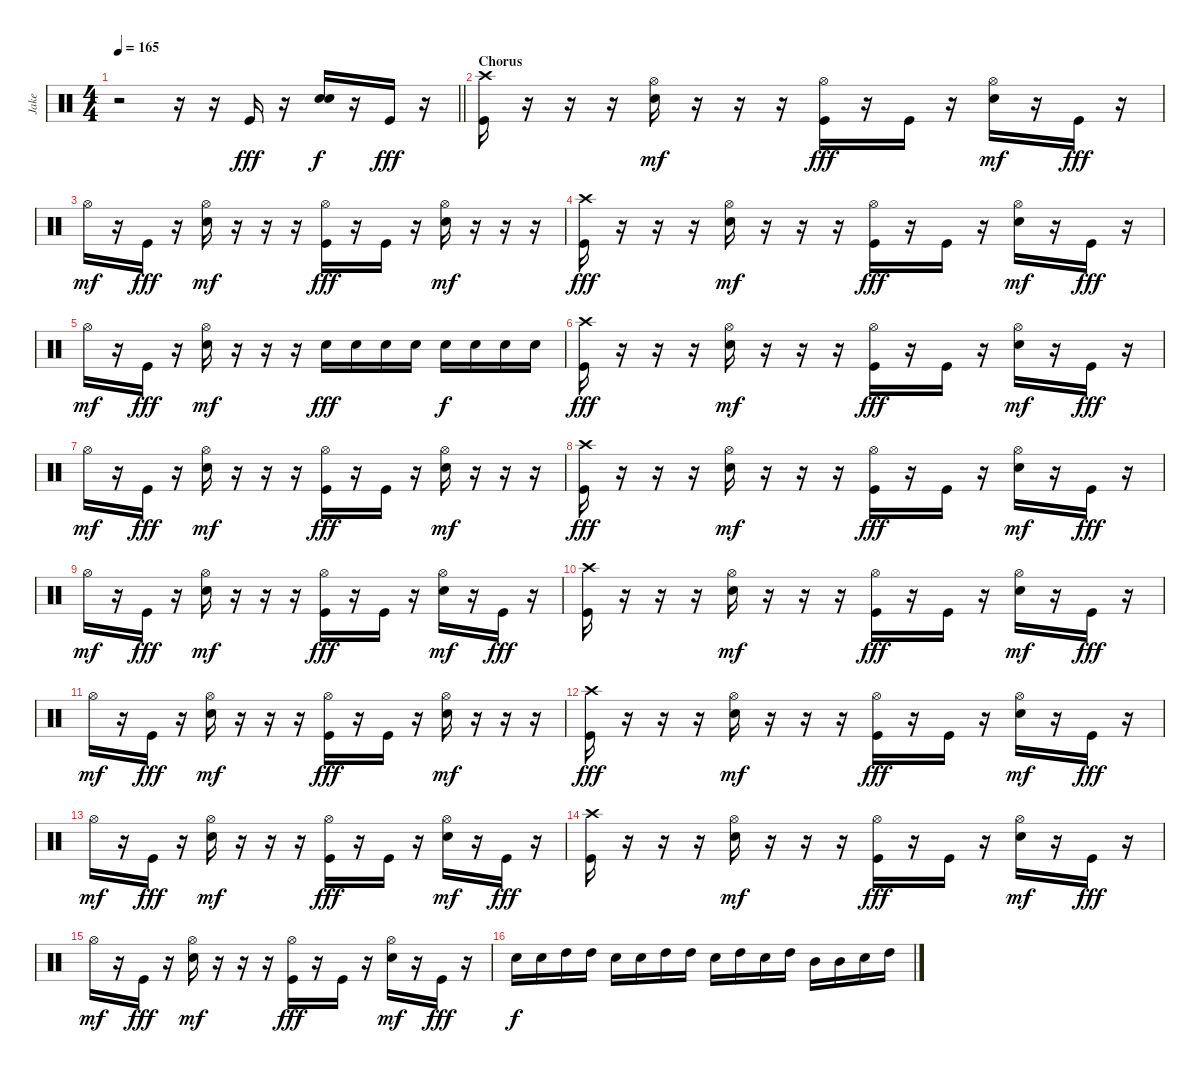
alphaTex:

\track ("Jake" "Jake") {instrument percussion}
\staff {score}
\articulation defaults
\ts (4 4)
\tempo 165
\clef neutral
\barLineRight lightlight
\ks c
r.2{dy mp} r.16 r.16 "Kick (hit)".16{dy fff} r.16 ("Electric Snare (hit)" "Electric Snare (hit)").16{dy f} r.16 "Kick (hit)".16{dy fff} r.16 |
\section ("" "Chorus")
("Crash high (hit)" "Kick (hit)").16 r.16 r.16 r.16 ("Hi-Hat (open)" "Electric Snare (hit)").16{dy mf} r.16 r.16 r.16 ("Hi-Hat (open)" "Kick (hit)").16{dy fff} r.16 "Kick (hit)".16 r.16 ("Hi-Hat (open)" "Electric Snare (hit)").16{dy mf} r.16 "Kick (hit)".16{dy fff} r.16 |
"Hi-Hat (open)".16{dy mf} r.16 "Kick (hit)".16{dy fff} r.16 ("Hi-Hat (open)" "Electric Snare (hit)").16{dy mf} r.16 r.16 r.16 ("Hi-Hat (open)" "Kick (hit)").16{dy fff} r.16 "Kick (hit)".16 r.16 ("Hi-Hat (open)" "Electric Snare (hit)").16{dy mf} r.16 r.16 r.16 |
("Crash high (hit)" "Kick (hit)").16{dy fff} r.16 r.16 r.16 ("Hi-Hat (open)" "Electric Snare (hit)").16{dy mf} r.16 r.16 r.16 ("Hi-Hat (open)" "Kick (hit)").16{dy fff} r.16 "Kick (hit)".16 r.16 ("Hi-Hat (open)" "Electric Snare (hit)").16{dy mf} r.16 "Kick (hit)".16{dy fff} r.16 |
"Hi-Hat (open)".16{dy mf} r.16 "Kick (hit)".16{dy fff} r.16 ("Hi-Hat (open)" "Electric Snare (hit)").16{dy mf} r.16 r.16 r.16 "Electric Snare (hit)".16{dy fff} "Electric Snare (hit)".16 "Electric Snare (hit)".16 "Electric Snare (hit)".16 "Electric Snare (hit)".16{dy f} "Electric Snare (hit)".16 "Electric Snare (hit)".16 "Electric Snare (hit)".16 |
("Crash high (hit)" "Kick (hit)").16{dy fff} r.16 r.16 r.16 ("Hi-Hat (open)" "Electric Snare (hit)").16{dy mf} r.16 r.16 r.16 ("Hi-Hat (open)" "Kick (hit)").16{dy fff} r.16 "Kick (hit)".16 r.16 ("Hi-Hat (open)" "Electric Snare (hit)").16{dy mf} r.16 "Kick (hit)".16{dy fff} r.16 |
"Hi-Hat (open)".16{dy mf} r.16 "Kick (hit)".16{dy fff} r.16 ("Hi-Hat (open)" "Electric Snare (hit)").16{dy mf} r.16 r.16 r.16 ("Hi-Hat (open)" "Kick (hit)").16{dy fff} r.16 "Kick (hit)".16 r.16 ("Hi-Hat (open)" "Electric Snare (hit)").16{dy mf} r.16 r.16 r.16 |
("Crash high (hit)" "Kick (hit)").16{dy fff} r.16 r.16 r.16 ("Hi-Hat (open)" "Electric Snare (hit)").16{dy mf} r.16 r.16 r.16 ("Hi-Hat (open)" "Kick (hit)").16{dy fff} r.16 "Kick (hit)".16 r.16 ("Hi-Hat (open)" "Electric Snare (hit)").16{dy mf} r.16 "Kick (hit)".16{dy fff} r.16 |
"Hi-Hat (open)".16{dy mf} r.16 "Kick (hit)".16{dy fff} r.16 ("Hi-Hat (open)" "Electric Snare (hit)").16{dy mf} r.16 r.16 r.16 ("Hi-Hat (open)" "Kick (hit)").16{dy fff} r.16 "Kick (hit)".16 r.16 ("Hi-Hat (open)" "Electric Snare (hit)").16{dy mf} r.16 "Kick (hit)".16{dy fff} r.16 |
("Crash high (hit)" "Kick (hit)").16 r.16 r.16 r.16 ("Hi-Hat (open)" "Electric Snare (hit)").16{dy mf} r.16 r.16 r.16 ("Hi-Hat (open)" "Kick (hit)").16{dy fff} r.16 "Kick (hit)".16 r.16 ("Hi-Hat (open)" "Electric Snare (hit)").16{dy mf} r.16 "Kick (hit)".16{dy fff} r.16 |
"Hi-Hat (open)".16{dy mf} r.16 "Kick (hit)".16{dy fff} r.16 ("Hi-Hat (open)" "Electric Snare (hit)").16{dy mf} r.16 r.16 r.16 ("Hi-Hat (open)" "Kick (hit)").16{dy fff} r.16 "Kick (hit)".16 r.16 ("Hi-Hat (open)" "Electric Snare (hit)").16{dy mf} r.16 r.16 r.16 |
("Crash high (hit)" "Kick (hit)").16{dy fff} r.16 r.16 r.16 ("Hi-Hat (open)" "Electric Snare (hit)").16{dy mf} r.16 r.16 r.16 ("Hi-Hat (open)" "Kick (hit)").16{dy fff} r.16 "Kick (hit)".16 r.16 ("Hi-Hat (open)" "Electric Snare (hit)").16{dy mf} r.16 "Kick (hit)".16{dy fff} r.16 |
"Hi-Hat (open)".16{dy mf} r.16 "Kick (hit)".16{dy fff} r.16 ("Hi-Hat (open)" "Electric Snare (hit)").16{dy mf} r.16 r.16 r.16 ("Hi-Hat (open)" "Kick (hit)").16{dy fff} r.16 "Kick (hit)".16 r.16 ("Hi-Hat (open)" "Electric Snare (hit)").16{dy mf} r.16 "Kick (hit)".16{dy fff} r.16 |
("Crash high (hit)" "Kick (hit)").16 r.16 r.16 r.16 ("Hi-Hat (open)" "Electric Snare (hit)").16{dy mf} r.16 r.16 r.16 ("Hi-Hat (open)" "Kick (hit)").16{dy fff} r.16 "Kick (hit)".16 r.16 ("Hi-Hat (open)" "Electric Snare (hit)").16{dy mf} r.16 "Kick (hit)".16{dy fff} r.16 |
"Hi-Hat (open)".16{dy mf} r.16 "Kick (hit)".16{dy fff} r.16 ("Hi-Hat (open)" "Electric Snare (hit)").16{dy mf} r.16 r.16 r.16 ("Hi-Hat (open)" "Kick (hit)").16{dy fff} r.16 "Kick (hit)".16 r.16 ("Hi-Hat (open)" "Electric Snare (hit)").16{dy mf} r.16 "Kick (hit)".16{dy fff} r.16 |
"Electric Snare (hit)".16{dy f} "Electric Snare (hit)".16 "High Tom (hit)".16 "High Tom (hit)".16 "Electric Snare (hit)".16 "Electric Snare (hit)".16 "High Tom (hit)".16 "High Tom (hit)".16 "Electric Snare (hit)".16 "High Tom (hit)".16 "Electric Snare (hit)".16 "High Tom (hit)".16 "Mid Tom (hit)".16 "Mid Tom (hit)".16 "Electric Snare (hit)".16 "High Tom (hit)".16
